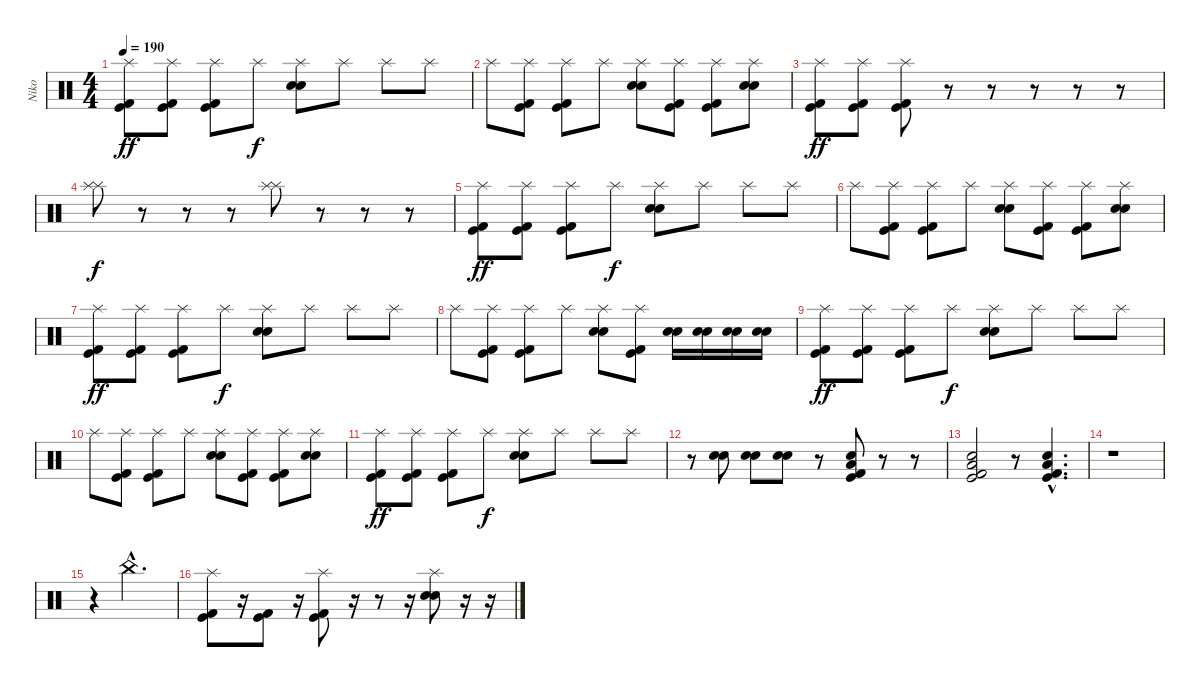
\track ("Niko" "Niko") {instrument percussion}
\staff {score}
\articulation defaults
\ts (4 4)
\tempo 190
\clef neutral
\ks c
("Splash (hit)" "Kick (hit) 2" "Kick (hit)").8{dy ff} ("Splash (hit)" "Kick (hit)" "Kick (hit) 2").8 ("Splash (hit)" "Kick (hit)" "Kick (hit) 2").8 "Splash (hit)".8{dy f} ("Splash (hit)" "Electric Snare (hit)" "Electric Snare (hit)").8 "Splash (hit)".8 "Splash (hit)".8 "Splash (hit)".8 |
"Splash (hit)".8 ("Splash (hit)" "Kick (hit) 2" "Kick (hit)").8 ("Splash (hit)" "Kick (hit)" "Kick (hit) 2").8 "Splash (hit)".8 ("Splash (hit)" "Electric Snare (hit)" "Electric Snare (hit)").8 ("Splash (hit)" "Kick (hit) 2" "Kick (hit)").8 ("Splash (hit)" "Kick (hit) 2" "Kick (hit)").8 ("Splash (hit)" "Electric Snare (hit)" "Electric Snare (hit)").8 |
("Splash (hit)" "Kick (hit) 2" "Kick (hit)").8{dy ff} ("Splash (hit)" "Kick (hit)" "Kick (hit) 2").8 ("Splash (hit)" "Kick (hit)" "Kick (hit) 2").8 r.8 r.8 r.8 r.8 r.8 |
("Splash (hit)" "Splash (hit)").8{dy f} r.8 r.8 r.8 ("Splash (hit)" "Splash (hit)").8 r.8 r.8 r.8 |
("Splash (hit)" "Kick (hit) 2" "Kick (hit)").8{dy ff} ("Splash (hit)" "Kick (hit)" "Kick (hit) 2").8 ("Splash (hit)" "Kick (hit)" "Kick (hit) 2").8 "Splash (hit)".8{dy f} ("Splash (hit)" "Electric Snare (hit)" "Electric Snare (hit)").8 "Splash (hit)".8 "Splash (hit)".8 "Splash (hit)".8 |
"Splash (hit)".8 ("Splash (hit)" "Kick (hit) 2" "Kick (hit)").8 ("Splash (hit)" "Kick (hit)" "Kick (hit) 2").8 "Splash (hit)".8 ("Splash (hit)" "Electric Snare (hit)" "Electric Snare (hit)").8 ("Splash (hit)" "Kick (hit) 2" "Kick (hit)").8 ("Splash (hit)" "Kick (hit) 2" "Kick (hit)").8 ("Splash (hit)" "Electric Snare (hit)" "Electric Snare (hit)").8 |
("Splash (hit)" "Kick (hit) 2" "Kick (hit)").8{dy ff} ("Splash (hit)" "Kick (hit)" "Kick (hit) 2").8 ("Splash (hit)" "Kick (hit)" "Kick (hit) 2").8 "Splash (hit)".8{dy f} ("Splash (hit)" "Electric Snare (hit)" "Electric Snare (hit)").8 "Splash (hit)".8 "Splash (hit)".8 "Splash (hit)".8 |
"Splash (hit)".8 ("Splash (hit)" "Kick (hit) 2" "Kick (hit)").8 ("Splash (hit)" "Kick (hit)" "Kick (hit) 2").8 "Splash (hit)".8 ("Splash (hit)" "Electric Snare (hit)" "Electric Snare (hit)").8 ("Splash (hit)" "Kick (hit) 2" "Kick (hit)").8 ("Electric Snare (hit)" "Electric Snare (hit)").16 ("Electric Snare (hit)" "Electric Snare (hit)").16 ("Electric Snare (hit)" "Electric Snare (hit)").16 ("Electric Snare (hit)" "Electric Snare (hit)").16 |
("Splash (hit)" "Kick (hit) 2" "Kick (hit)").8{dy ff} ("Splash (hit)" "Kick (hit)" "Kick (hit) 2").8 ("Splash (hit)" "Kick (hit)" "Kick (hit) 2").8 "Splash (hit)".8{dy f} ("Splash (hit)" "Electric Snare (hit)" "Electric Snare (hit)").8 "Splash (hit)".8 "Splash (hit)".8 "Splash (hit)".8 |
"Splash (hit)".8 ("Splash (hit)" "Kick (hit) 2" "Kick (hit)").8 ("Splash (hit)" "Kick (hit)" "Kick (hit) 2").8 "Splash (hit)".8 ("Splash (hit)" "Electric Snare (hit)" "Electric Snare (hit)").8 ("Splash (hit)" "Kick (hit) 2" "Kick (hit)").8 ("Splash (hit)" "Kick (hit) 2" "Kick (hit)").8 ("Splash (hit)" "Electric Snare (hit)" "Electric Snare (hit)").8 |
("Splash (hit)" "Kick (hit) 2" "Kick (hit)").8{dy ff} ("Splash (hit)" "Kick (hit)" "Kick (hit) 2").8 ("Splash (hit)" "Kick (hit)" "Kick (hit) 2").8 "Splash (hit)".8{dy f} ("Splash (hit)" "Electric Snare (hit)" "Electric Snare (hit)").8 "Splash (hit)".8 "Splash (hit)".8 "Splash (hit)".8 |
r.8 ("Electric Snare (hit)" "Electric Snare (hit)").8 ("Electric Snare (hit)" "Electric Snare (hit)").8 ("Electric Snare (hit)" "Electric Snare (hit)").8 r.8 ("Electric Snare (hit)" "Low Floor Tom (hit)" "Kick (hit)" "Kick (hit) 2").8 r.8 r.8 |
("Electric Snare (hit)" "Low Floor Tom (hit)" "Kick (hit) 2" "Kick (hit)").2 r.8 ("Electric Snare (hit)"{hac} "Low Floor Tom (hit)"{hac} "Kick (hit)"{hac} "Kick (hit) 2"{hac}).4{d} |
r.1 |
r.4 "China (hit)"{hac}.2{d} |
("Splash (hit)" "Kick (hit) 2" "Kick (hit)").8 r.16 ("Kick (hit) 2" "Kick (hit)").8 r.16 ("Splash (hit)" "Kick (hit)" "Kick (hit) 2").8 r.16 r.8 r.16 ("Splash (hit)" "Electric Snare (hit)" "Electric Snare (hit)").8 r.16 r.16
